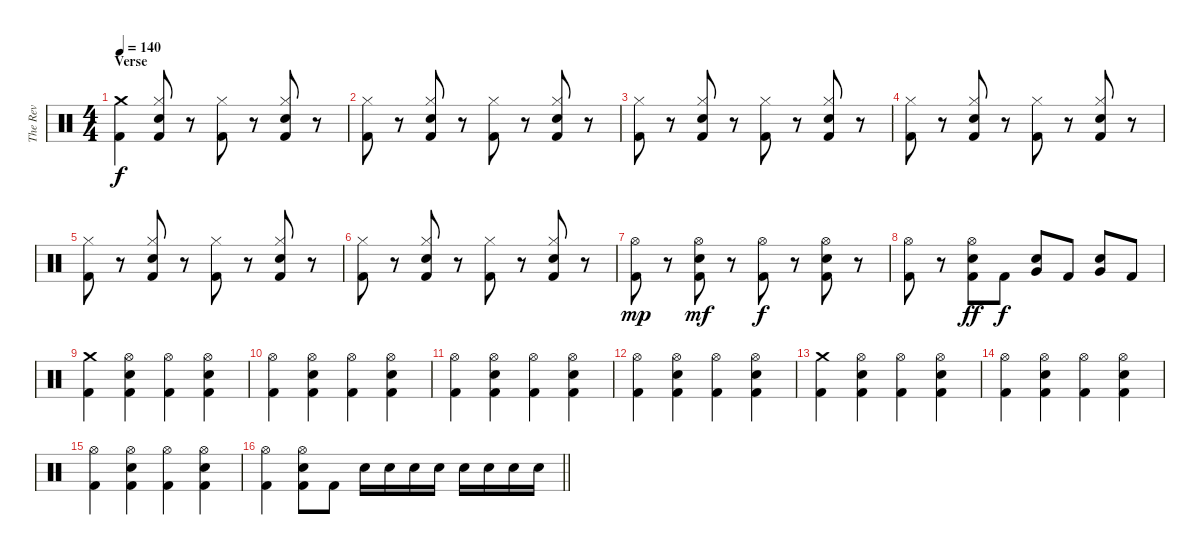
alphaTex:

\track ("The Rev" "The Rev") {instrument percussion}
\staff {score}
\articulation defaults
\ts (4 4)
\section ("" "Verse")
\tempo 140
\clef neutral
\ks c
("Crash medium (hit)" "Kick (hit) 2").4{dy f} ("Hi-Hat (closed)" "Electric Snare (hit)" "Kick (hit) 2").8 r.8 ("Hi-Hat (closed)" "Kick (hit) 2").8 r.8 ("Hi-Hat (closed)" "Electric Snare (hit)" "Kick (hit) 2").8 r.8 |
("Hi-Hat (closed)" "Kick (hit) 2").8 r.8 ("Hi-Hat (closed)" "Electric Snare (hit)" "Kick (hit) 2").8 r.8 ("Hi-Hat (closed)" "Kick (hit) 2").8 r.8 ("Hi-Hat (closed)" "Electric Snare (hit)" "Kick (hit) 2").8 r.8 |
("Hi-Hat (closed)" "Kick (hit) 2").8 r.8 ("Hi-Hat (closed)" "Electric Snare (hit)" "Kick (hit) 2").8 r.8 ("Hi-Hat (closed)" "Kick (hit) 2").8 r.8 ("Hi-Hat (closed)" "Electric Snare (hit)" "Kick (hit) 2").8 r.8 |
("Hi-Hat (closed)" "Kick (hit) 2").8 r.8 ("Hi-Hat (closed)" "Electric Snare (hit)" "Kick (hit) 2").8 r.8 ("Hi-Hat (closed)" "Kick (hit) 2").8 r.8 ("Hi-Hat (closed)" "Electric Snare (hit)" "Kick (hit) 2").8 r.8 |
("Hi-Hat (closed)" "Kick (hit) 2").8 r.8 ("Hi-Hat (closed)" "Electric Snare (hit)" "Kick (hit) 2").8 r.8 ("Hi-Hat (closed)" "Kick (hit) 2").8 r.8 ("Hi-Hat (closed)" "Electric Snare (hit)" "Kick (hit) 2").8 r.8 |
("Hi-Hat (closed)" "Kick (hit) 2").8 r.8 ("Hi-Hat (closed)" "Electric Snare (hit)" "Kick (hit) 2").8 r.8 ("Hi-Hat (closed)" "Kick (hit) 2").8 r.8 ("Hi-Hat (closed)" "Electric Snare (hit)" "Kick (hit) 2").8 r.8 |
("Hi-Hat (open)" "Kick (hit) 2").8{dy mp} r.8 ("Hi-Hat (open)" "Electric Snare (hit)" "Kick (hit) 2").8{dy mf} r.8 ("Hi-Hat (open)" "Kick (hit) 2").8{dy f} r.8 ("Hi-Hat (open)" "Electric Snare (hit)" "Kick (hit) 2").8 r.8 |
("Hi-Hat (open)" "Kick (hit) 2").8 r.8 ("Hi-Hat (open)" "Electric Snare (hit)" "Kick (hit) 2").8{dy ff} "Kick (hit) 2".8{dy f} ("Electric Snare (hit)" "Very Low Tom (hit)").8 "Kick (hit) 2".8 ("Electric Snare (hit)" "Very Low Tom (hit)").8 "Kick (hit) 2".8 |
("Crash medium (hit)" "Kick (hit) 2").4 ("Hi-Hat (open)" "Electric Snare (hit)" "Kick (hit) 2").4 ("Hi-Hat (open)" "Kick (hit) 2").4 ("Hi-Hat (open)" "Electric Snare (hit)" "Kick (hit) 2").4 |
("Hi-Hat (open)" "Kick (hit) 2").4 ("Hi-Hat (open)" "Electric Snare (hit)" "Kick (hit) 2").4 ("Hi-Hat (open)" "Kick (hit) 2").4 ("Hi-Hat (open)" "Electric Snare (hit)" "Kick (hit) 2").4 |
("Hi-Hat (open)" "Kick (hit) 2").4 ("Hi-Hat (open)" "Electric Snare (hit)" "Kick (hit) 2").4 ("Hi-Hat (open)" "Kick (hit) 2").4 ("Hi-Hat (open)" "Electric Snare (hit)" "Kick (hit) 2").4 |
("Hi-Hat (open)" "Kick (hit) 2").4 ("Hi-Hat (open)" "Electric Snare (hit)" "Kick (hit) 2").4 ("Hi-Hat (open)" "Kick (hit) 2").4 ("Hi-Hat (open)" "Electric Snare (hit)" "Kick (hit) 2").4 |
("Crash medium (hit)" "Kick (hit) 2").4 ("Hi-Hat (open)" "Electric Snare (hit)" "Kick (hit) 2").4 ("Hi-Hat (open)" "Kick (hit) 2").4 ("Hi-Hat (open)" "Electric Snare (hit)" "Kick (hit) 2").4 |
("Hi-Hat (open)" "Kick (hit) 2").4 ("Hi-Hat (open)" "Electric Snare (hit)" "Kick (hit) 2").4 ("Hi-Hat (open)" "Kick (hit) 2").4 ("Hi-Hat (open)" "Electric Snare (hit)" "Kick (hit) 2").4 |
("Hi-Hat (open)" "Kick (hit) 2").4 ("Hi-Hat (open)" "Electric Snare (hit)" "Kick (hit) 2").4 ("Hi-Hat (open)" "Kick (hit) 2").4 ("Hi-Hat (open)" "Electric Snare (hit)" "Kick (hit) 2").4 |
\barLineRight lightlight
("Hi-Hat (open)" "Kick (hit) 2").4 ("Hi-Hat (open)" "Electric Snare (hit)" "Kick (hit) 2").8 "Kick (hit) 2".8 "Electric Snare (hit)".16 "Electric Snare (hit)".16 "Electric Snare (hit)".16 "Electric Snare (hit)".16 "Electric Snare (hit)".16 "Electric Snare (hit)".16 "Electric Snare (hit)".16 "Electric Snare (hit)".16
